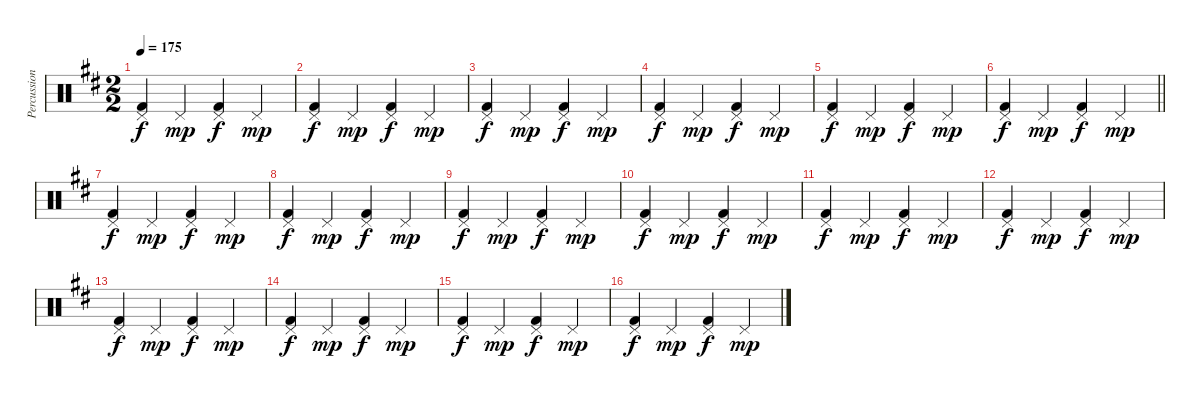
\track ("Percussion" "Percussion") {instrument percussion}
\staff {score}
\articulation defaults
\ts (2 2)
\tempo 175
\clef neutral
\ks d
("Pedal Hi-Hat (hit)" "Kick (hit) 2").4{dy f} "Pedal Hi-Hat (hit)".4{dy mp} ("Pedal Hi-Hat (hit)" "Kick (hit) 2").4{dy f} "Pedal Hi-Hat (hit)".4{dy mp} |
("Pedal Hi-Hat (hit)" "Kick (hit) 2").4{dy f} "Pedal Hi-Hat (hit)".4{dy mp} ("Pedal Hi-Hat (hit)" "Kick (hit) 2").4{dy f} "Pedal Hi-Hat (hit)".4{dy mp} |
("Pedal Hi-Hat (hit)" "Kick (hit) 2").4{dy f} "Pedal Hi-Hat (hit)".4{dy mp} ("Pedal Hi-Hat (hit)" "Kick (hit) 2").4{dy f} "Pedal Hi-Hat (hit)".4{dy mp} |
("Pedal Hi-Hat (hit)" "Kick (hit) 2").4{dy f} "Pedal Hi-Hat (hit)".4{dy mp} ("Pedal Hi-Hat (hit)" "Kick (hit) 2").4{dy f} "Pedal Hi-Hat (hit)".4{dy mp} |
("Pedal Hi-Hat (hit)" "Kick (hit) 2").4{dy f} "Pedal Hi-Hat (hit)".4{dy mp} ("Pedal Hi-Hat (hit)" "Kick (hit) 2").4{dy f} "Pedal Hi-Hat (hit)".4{dy mp} |
\barLineRight lightlight
("Pedal Hi-Hat (hit)" "Kick (hit) 2").4{dy f} "Pedal Hi-Hat (hit)".4{dy mp} ("Pedal Hi-Hat (hit)" "Kick (hit) 2").4{dy f} "Pedal Hi-Hat (hit)".4{dy mp} |
("Pedal Hi-Hat (hit)" "Kick (hit) 2").4{dy f} "Pedal Hi-Hat (hit)".4{dy mp} ("Pedal Hi-Hat (hit)" "Kick (hit) 2").4{dy f} "Pedal Hi-Hat (hit)".4{dy mp} |
("Pedal Hi-Hat (hit)" "Kick (hit) 2").4{dy f} "Pedal Hi-Hat (hit)".4{dy mp} ("Pedal Hi-Hat (hit)" "Kick (hit) 2").4{dy f} "Pedal Hi-Hat (hit)".4{dy mp} |
("Pedal Hi-Hat (hit)" "Kick (hit) 2").4{dy f} "Pedal Hi-Hat (hit)".4{dy mp} ("Pedal Hi-Hat (hit)" "Kick (hit) 2").4{dy f} "Pedal Hi-Hat (hit)".4{dy mp} |
("Pedal Hi-Hat (hit)" "Kick (hit) 2").4{dy f} "Pedal Hi-Hat (hit)".4{dy mp} ("Pedal Hi-Hat (hit)" "Kick (hit) 2").4{dy f} "Pedal Hi-Hat (hit)".4{dy mp} |
("Pedal Hi-Hat (hit)" "Kick (hit) 2").4{dy f} "Pedal Hi-Hat (hit)".4{dy mp} ("Pedal Hi-Hat (hit)" "Kick (hit) 2").4{dy f} "Pedal Hi-Hat (hit)".4{dy mp} |
("Pedal Hi-Hat (hit)" "Kick (hit) 2").4{dy f} "Pedal Hi-Hat (hit)".4{dy mp} ("Pedal Hi-Hat (hit)" "Kick (hit) 2").4{dy f} "Pedal Hi-Hat (hit)".4{dy mp} |
("Pedal Hi-Hat (hit)" "Kick (hit) 2").4{dy f} "Pedal Hi-Hat (hit)".4{dy mp} ("Pedal Hi-Hat (hit)" "Kick (hit) 2").4{dy f} "Pedal Hi-Hat (hit)".4{dy mp} |
("Pedal Hi-Hat (hit)" "Kick (hit) 2").4{dy f} "Pedal Hi-Hat (hit)".4{dy mp} ("Pedal Hi-Hat (hit)" "Kick (hit) 2").4{dy f} "Pedal Hi-Hat (hit)".4{dy mp} |
("Pedal Hi-Hat (hit)" "Kick (hit) 2").4{dy f} "Pedal Hi-Hat (hit)".4{dy mp} ("Pedal Hi-Hat (hit)" "Kick (hit) 2").4{dy f} "Pedal Hi-Hat (hit)".4{dy mp} |
("Pedal Hi-Hat (hit)" "Kick (hit) 2").4{dy f} "Pedal Hi-Hat (hit)".4{dy mp} ("Pedal Hi-Hat (hit)" "Kick (hit) 2").4{dy f} "Pedal Hi-Hat (hit)".4{dy mp}
